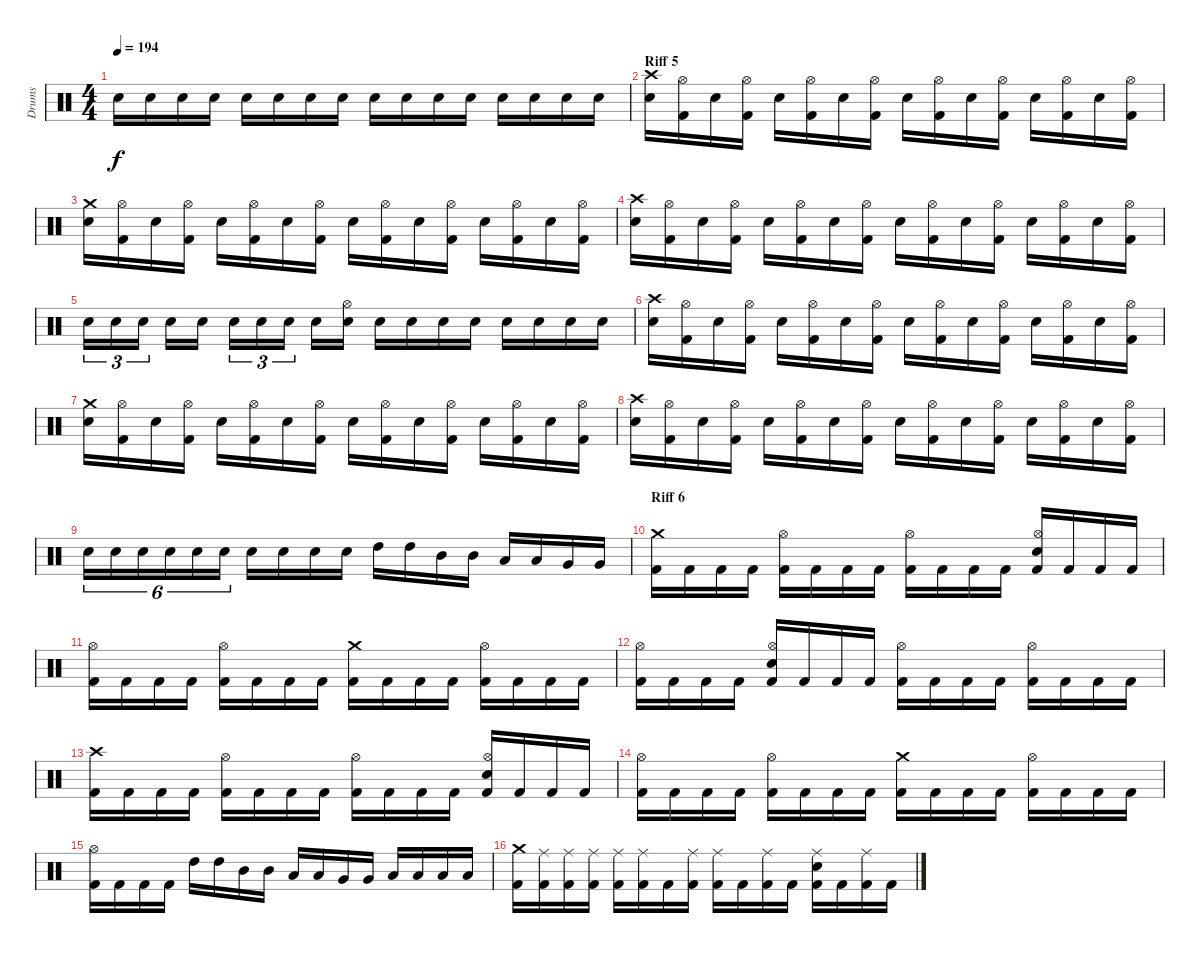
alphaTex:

\track ("Drums" "Drums") {instrument percussion}
\staff {score}
\articulation defaults
\ts (4 4)
\tempo 194
\clef neutral
\ks c "Electric Snare (hit)".16{dy f} "Electric Snare (hit)".16 "Electric Snare (hit)".16 "Electric Snare (hit)".16 "Electric Snare (hit)".16 "Electric Snare (hit)".16 "Electric Snare (hit)".16 "Electric Snare (hit)".16 "Electric Snare (hit)".16 "Electric Snare (hit)".16 "Electric Snare (hit)".16 "Electric Snare (hit)".16 "Electric Snare (hit)".16 "Electric Snare (hit)".16 "Electric Snare (hit)".16 "Electric Snare (hit)".16
|
\section ("" "Riff 5")
("Crash high (hit)" "Electric Snare (hit)").16 ("Hi-Hat (open)" "Kick (hit) 2").16 "Electric Snare (hit)".16 ("Hi-Hat (open)" "Kick (hit) 2").16 "Electric Snare (hit)".16 ("Hi-Hat (open)" "Kick (hit) 2").16 "Electric Snare (hit)".16 ("Hi-Hat (open)" "Kick (hit) 2").16 "Electric Snare (hit)".16 ("Hi-Hat (open)" "Kick (hit) 2").16 "Electric Snare (hit)".16 ("Hi-Hat (open)" "Kick (hit) 2").16 "Electric Snare (hit)".16 ("Hi-Hat (open)" "Kick (hit) 2").16 "Electric Snare (hit)".16 ("Hi-Hat (open)" "Kick (hit) 2").16 |
("Crash medium (hit)" "Electric Snare (hit)").16 ("Hi-Hat (open)" "Kick (hit) 2").16 "Electric Snare (hit)".16 ("Hi-Hat (open)" "Kick (hit) 2").16 "Electric Snare (hit)".16 ("Hi-Hat (open)" "Kick (hit) 2").16 "Electric Snare (hit)".16 ("Hi-Hat (open)" "Kick (hit) 2").16 "Electric Snare (hit)".16 ("Hi-Hat (open)" "Kick (hit) 2").16 "Electric Snare (hit)".16 ("Hi-Hat (open)" "Kick (hit) 2").16 "Electric Snare (hit)".16 ("Hi-Hat (open)" "Kick (hit) 2").16 "Electric Snare (hit)".16 ("Hi-Hat (open)" "Kick (hit) 2").16 |
("Crash high (hit)" "Electric Snare (hit)").16 ("Hi-Hat (open)" "Kick (hit) 2").16 "Electric Snare (hit)".16 ("Hi-Hat (open)" "Kick (hit) 2").16 "Electric Snare (hit)".16 ("Hi-Hat (open)" "Kick (hit) 2").16 "Electric Snare (hit)".16 ("Hi-Hat (open)" "Kick (hit) 2").16 "Electric Snare (hit)".16 ("Hi-Hat (open)" "Kick (hit) 2").16 "Electric Snare (hit)".16 ("Hi-Hat (open)" "Kick (hit) 2").16 "Electric Snare (hit)".16 ("Hi-Hat (open)" "Kick (hit) 2").16 "Electric Snare (hit)".16 ("Hi-Hat (open)" "Kick (hit) 2").16 |
"Electric Snare (hit)".16{tu (3 2)} "Electric Snare (hit)".16{tu (3 2)} "Electric Snare (hit)".16{tu (3 2)} "Electric Snare (hit)".16 "Electric Snare (hit)".16 "Electric Snare (hit)".16{tu (3 2)} "Electric Snare (hit)".16{tu (3 2)} "Electric Snare (hit)".16{tu (3 2)} "Electric Snare (hit)".16 ("Hi-Hat (open)" "Electric Snare (hit)").16 "Electric Snare (hit)".16 "Electric Snare (hit)".16 "Electric Snare (hit)".16 "Electric Snare (hit)".16 "Electric Snare (hit)".16 "Electric Snare (hit)".16 "Electric Snare (hit)".16 "Electric Snare (hit)".16 |
("Crash high (hit)" "Electric Snare (hit)").16 ("Hi-Hat (open)" "Kick (hit) 2").16 "Electric Snare (hit)".16 ("Hi-Hat (open)" "Kick (hit) 2").16 "Electric Snare (hit)".16 ("Hi-Hat (open)" "Kick (hit) 2").16 "Electric Snare (hit)".16 ("Hi-Hat (open)" "Kick (hit) 2").16 "Electric Snare (hit)".16 ("Hi-Hat (open)" "Kick (hit) 2").16 "Electric Snare (hit)".16 ("Hi-Hat (open)" "Kick (hit) 2").16 "Electric Snare (hit)".16 ("Hi-Hat (open)" "Kick (hit) 2").16 "Electric Snare (hit)".16 ("Hi-Hat (open)" "Kick (hit) 2").16 |
("Crash medium (hit)" "Electric Snare (hit)").16 ("Hi-Hat (open)" "Kick (hit) 2").16 "Electric Snare (hit)".16 ("Hi-Hat (open)" "Kick (hit) 2").16 "Electric Snare (hit)".16 ("Hi-Hat (open)" "Kick (hit) 2").16 "Electric Snare (hit)".16 ("Hi-Hat (open)" "Kick (hit) 2").16 "Electric Snare (hit)".16 ("Hi-Hat (open)" "Kick (hit) 2").16 "Electric Snare (hit)".16 ("Hi-Hat (open)" "Kick (hit) 2").16 "Electric Snare (hit)".16 ("Hi-Hat (open)" "Kick (hit) 2").16 "Electric Snare (hit)".16 ("Hi-Hat (open)" "Kick (hit) 2").16 |
("Crash high (hit)" "Electric Snare (hit)").16 ("Hi-Hat (open)" "Kick (hit) 2").16 "Electric Snare (hit)".16 ("Hi-Hat (open)" "Kick (hit) 2").16 "Electric Snare (hit)".16 ("Hi-Hat (open)" "Kick (hit) 2").16 "Electric Snare (hit)".16 ("Hi-Hat (open)" "Kick (hit) 2").16 "Electric Snare (hit)".16 ("Hi-Hat (open)" "Kick (hit) 2").16 "Electric Snare (hit)".16 ("Hi-Hat (open)" "Kick (hit) 2").16 "Electric Snare (hit)".16 ("Hi-Hat (open)" "Kick (hit) 2").16 "Electric Snare (hit)".16 ("Hi-Hat (open)" "Kick (hit) 2").16 |
"Electric Snare (hit)".16{tu (6 4)} "Electric Snare (hit)".16{tu (6 4)} "Electric Snare (hit)".16{tu (6 4)} "Electric Snare (hit)".16{tu (6 4)} "Electric Snare (hit)".16{tu (6 4)} "Electric Snare (hit)".16{tu (6 4)} "Electric Snare (hit)".16 "Electric Snare (hit)".16 "Electric Snare (hit)".16 "Electric Snare (hit)".16 "High Tom (hit)".16 "High Tom (hit)".16 "Mid Tom (hit)".16 "Mid Tom (hit)".16 "Low Tom (hit)".16 "Low Tom (hit)".16 "Very Low Tom (hit)".16 "Very Low Tom (hit)".16 |
\section ("" "Riff 6")
("Crash medium (hit)" "Kick (hit) 2").16 "Kick (hit) 2".16 "Kick (hit) 2".16 "Kick (hit) 2".16 ("Hi-Hat (open)" "Kick (hit) 2").16 "Kick (hit) 2".16 "Kick (hit) 2".16 "Kick (hit) 2".16 ("Hi-Hat (open)" "Kick (hit) 2").16 "Kick (hit) 2".16 "Kick (hit) 2".16 "Kick (hit) 2".16 ("Hi-Hat (open)" "Electric Snare (hit)" "Kick (hit) 2").16 "Kick (hit) 2".16 "Kick (hit) 2".16 "Kick (hit) 2".16 |
("Hi-Hat (open)" "Kick (hit) 2").16 "Kick (hit) 2".16 "Kick (hit) 2".16 "Kick (hit) 2".16 ("Hi-Hat (open)" "Kick (hit) 2").16 "Kick (hit) 2".16 "Kick (hit) 2".16 "Kick (hit) 2".16 ("Crash medium (hit)" "Kick (hit) 2").16 "Kick (hit) 2".16 "Kick (hit) 2".16 "Kick (hit) 2".16 ("Hi-Hat (open)" "Kick (hit) 2").16 "Kick (hit) 2".16 "Kick (hit) 2".16 "Kick (hit) 2".16 |
("Hi-Hat (open)" "Kick (hit) 2").16 "Kick (hit) 2".16 "Kick (hit) 2".16 "Kick (hit) 2".16 ("Hi-Hat (open)" "Electric Snare (hit)" "Kick (hit) 2").16 "Kick (hit) 2".16 "Kick (hit) 2".16 "Kick (hit) 2".16 ("Hi-Hat (open)" "Kick (hit) 2").16 "Kick (hit) 2".16 "Kick (hit) 2".16 "Kick (hit) 2".16 ("Hi-Hat (open)" "Kick (hit) 2").16 "Kick (hit) 2".16 "Kick (hit) 2".16 "Kick (hit) 2".16 |
("Crash high (hit)" "Kick (hit) 2").16 "Kick (hit) 2".16 "Kick (hit) 2".16 "Kick (hit) 2".16 ("Hi-Hat (open)" "Kick (hit) 2").16 "Kick (hit) 2".16 "Kick (hit) 2".16 "Kick (hit) 2".16 ("Hi-Hat (open)" "Kick (hit) 2").16 "Kick (hit) 2".16 "Kick (hit) 2".16 "Kick (hit) 2".16 ("Hi-Hat (open)" "Electric Snare (hit)" "Kick (hit) 2").16 "Kick (hit) 2".16 "Kick (hit) 2".16 "Kick (hit) 2".16 |
("Hi-Hat (open)" "Kick (hit) 2").16 "Kick (hit) 2".16 "Kick (hit) 2".16 "Kick (hit) 2".16 ("Hi-Hat (open)" "Kick (hit) 2").16 "Kick (hit) 2".16 "Kick (hit) 2".16 "Kick (hit) 2".16 ("Crash medium (hit)" "Kick (hit) 2").16 "Kick (hit) 2".16 "Kick (hit) 2".16 "Kick (hit) 2".16 ("Hi-Hat (open)" "Kick (hit) 2").16 "Kick (hit) 2".16 "Kick (hit) 2".16 "Kick (hit) 2".16 |
("Hi-Hat (open)" "Kick (hit) 2").16 "Kick (hit) 2".16 "Kick (hit) 2".16 "Kick (hit) 2".16 "High Tom (hit)".16 "High Tom (hit)".16 "Mid Tom (hit)".16 "Mid Tom (hit)".16 "Low Tom (hit)".16 "Low Tom (hit)".16 "Very Low Tom (hit)".16 "Very Low Tom (hit)".16 "Low Floor Tom (hit)".16 "Low Floor Tom (hit)".16 "Low Floor Tom (hit)".16 "Low Floor Tom (hit)".16 |
("Crash medium (hit)" "Kick (hit) 2").16 ("Ride (middle)" "Kick (hit) 2").16 ("Ride (middle)" "Kick (hit) 2").16 ("Ride (middle)" "Kick (hit) 2").16 ("Ride (middle)" "Kick (hit) 2").16 ("Ride (middle)" "Kick (hit) 2").16 "Kick (hit) 2".16 ("Ride (middle)" "Kick (hit) 2").16 ("Ride (middle)" "Kick (hit) 2").16 "Kick (hit) 2".16 ("Ride (middle)" "Kick (hit) 2").16 "Kick (hit) 2".16 ("Ride (middle)" "Electric Snare (hit)" "Kick (hit) 2").16 "Kick (hit) 2".16 ("Ride (middle)" "Kick (hit) 2").16 "Kick (hit) 2".16
